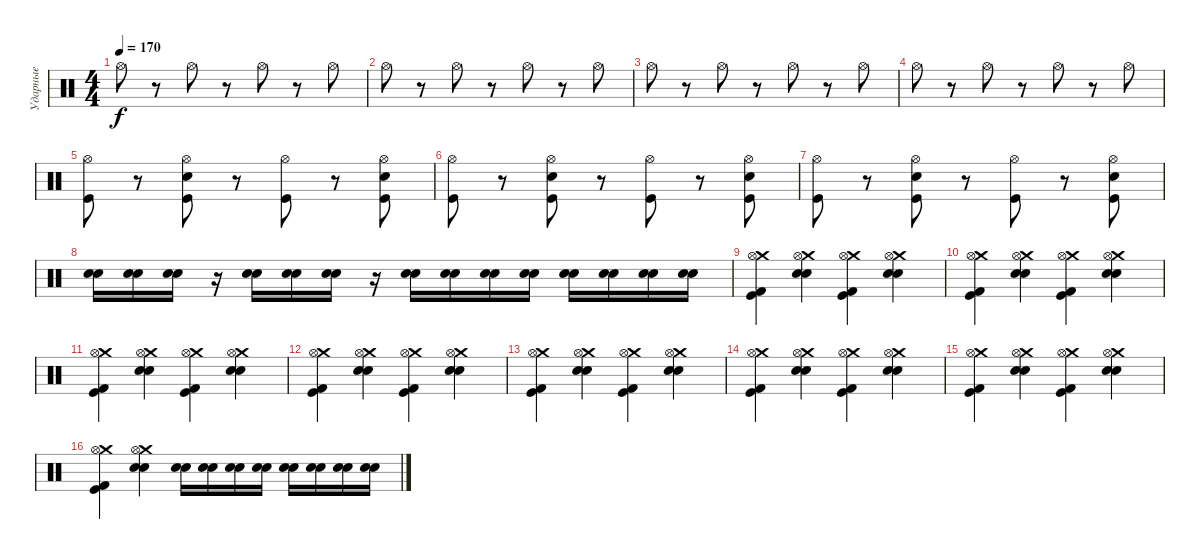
\track ("Ударные" "Ударные") {instrument percussion}
\staff {score}
\articulation defaults
\ts (4 4)
\tempo 170
\clef neutral
\ks c "Hi-Hat (open)".8{dy f}
r.8 "Hi-Hat (open)".8 r.8 "Hi-Hat (open)".8 r.8 "Hi-Hat (open)".8 |
"Hi-Hat (open)".8 r.8 "Hi-Hat (open)".8 r.8 "Hi-Hat (open)".8 r.8 "Hi-Hat (open)".8 |
"Hi-Hat (open)".8 r.8 "Hi-Hat (open)".8 r.8 "Hi-Hat (open)".8 r.8 "Hi-Hat (open)".8 |
"Hi-Hat (open)".8 r.8 "Hi-Hat (open)".8 r.8 "Hi-Hat (open)".8 r.8 "Hi-Hat (open)".8 |
("Hi-Hat (open)" "Kick (hit)").8 r.8 ("Hi-Hat (open)" "Kick (hit)" "Electric Snare (hit)").8 r.8 ("Hi-Hat (open)" "Kick (hit)").8 r.8 ("Hi-Hat (open)" "Kick (hit)" "Electric Snare (hit)").8 |
("Hi-Hat (open)" "Kick (hit)").8 r.8 ("Hi-Hat (open)" "Kick (hit)" "Electric Snare (hit)").8 r.8 ("Hi-Hat (open)" "Kick (hit)").8 r.8 ("Hi-Hat (open)" "Kick (hit)" "Electric Snare (hit)").8 |
("Hi-Hat (open)" "Kick (hit)").8 r.8 ("Hi-Hat (open)" "Kick (hit)" "Electric Snare (hit)").8 r.8 ("Hi-Hat (open)" "Kick (hit)").8 r.8 ("Hi-Hat (open)" "Kick (hit)" "Electric Snare (hit)").8 |
("Snare (hit) 2" "Electric Snare (hit)").16 ("Snare (hit) 2" "Electric Snare (hit)").16 ("Snare (hit) 2" "Electric Snare (hit)").16 r.16 ("Snare (hit) 2" "Electric Snare (hit)").16 ("Snare (hit) 2" "Electric Snare (hit)").16 ("Snare (hit) 2" "Electric Snare (hit)").16 r.16 ("Snare (hit) 2" "Electric Snare (hit)").16 ("Snare (hit) 2" "Electric Snare (hit)").16 ("Snare (hit) 2" "Electric Snare (hit)").16 ("Snare (hit) 2" "Electric Snare (hit)").16 ("Snare (hit) 2" "Electric Snare (hit)").16 ("Snare (hit) 2" "Electric Snare (hit)").16 ("Snare (hit) 2" "Electric Snare (hit)").16 ("Snare (hit) 2" "Electric Snare (hit)").16 |
("Crash medium (hit)" "Hi-Hat (open)" "Kick (hit)" "Kick (hit) 2").4 ("Crash medium (hit)" "Hi-Hat (open)" "Electric Snare (hit)" "Snare (hit) 2").4 ("Crash medium (hit)" "Hi-Hat (open)" "Kick (hit)" "Kick (hit) 2").4 ("Crash medium (hit)" "Hi-Hat (open)" "Electric Snare (hit)" "Snare (hit) 2").4 |
("Crash medium (hit)" "Hi-Hat (open)" "Kick (hit)" "Kick (hit) 2").4 ("Crash medium (hit)" "Hi-Hat (open)" "Electric Snare (hit)" "Snare (hit) 2").4 ("Crash medium (hit)" "Hi-Hat (open)" "Kick (hit)" "Kick (hit) 2").4 ("Crash medium (hit)" "Hi-Hat (open)" "Electric Snare (hit)" "Snare (hit) 2").4 |
("Crash medium (hit)" "Hi-Hat (open)" "Kick (hit)" "Kick (hit) 2").4 ("Crash medium (hit)" "Hi-Hat (open)" "Electric Snare (hit)" "Snare (hit) 2").4 ("Crash medium (hit)" "Hi-Hat (open)" "Kick (hit)" "Kick (hit) 2").4 ("Crash medium (hit)" "Hi-Hat (open)" "Electric Snare (hit)" "Snare (hit) 2").4 |
("Crash medium (hit)" "Hi-Hat (open)" "Kick (hit)" "Kick (hit) 2").4 ("Crash medium (hit)" "Hi-Hat (open)" "Electric Snare (hit)" "Snare (hit) 2").4 ("Crash medium (hit)" "Hi-Hat (open)" "Kick (hit)" "Kick (hit) 2").4 ("Crash medium (hit)" "Hi-Hat (open)" "Electric Snare (hit)" "Snare (hit) 2").4 |
("Crash medium (hit)" "Hi-Hat (open)" "Kick (hit)" "Kick (hit) 2").4 ("Crash medium (hit)" "Hi-Hat (open)" "Electric Snare (hit)" "Snare (hit) 2").4 ("Crash medium (hit)" "Hi-Hat (open)" "Kick (hit)" "Kick (hit) 2").4 ("Crash medium (hit)" "Hi-Hat (open)" "Electric Snare (hit)" "Snare (hit) 2").4 |
("Crash medium (hit)" "Hi-Hat (open)" "Kick (hit)" "Kick (hit) 2").4 ("Crash medium (hit)" "Hi-Hat (open)" "Electric Snare (hit)" "Snare (hit) 2").4 ("Crash medium (hit)" "Hi-Hat (open)" "Kick (hit)" "Kick (hit) 2").4 ("Crash medium (hit)" "Hi-Hat (open)" "Electric Snare (hit)" "Snare (hit) 2").4 |
("Crash medium (hit)" "Hi-Hat (open)" "Kick (hit)" "Kick (hit) 2").4 ("Crash medium (hit)" "Hi-Hat (open)" "Electric Snare (hit)" "Snare (hit) 2").4 ("Crash medium (hit)" "Hi-Hat (open)" "Kick (hit)" "Kick (hit) 2").4 ("Crash medium (hit)" "Hi-Hat (open)" "Electric Snare (hit)" "Snare (hit) 2").4 |
("Crash medium (hit)" "Hi-Hat (open)" "Kick (hit)" "Kick (hit) 2").4 ("Crash medium (hit)" "Hi-Hat (open)" "Electric Snare (hit)" "Snare (hit) 2").4 ("Snare (hit) 2" "Electric Snare (hit)").16 ("Snare (hit) 2" "Electric Snare (hit)").16 ("Snare (hit) 2" "Electric Snare (hit)").16 ("Snare (hit) 2" "Electric Snare (hit)").16 ("Snare (hit) 2" "Electric Snare (hit)").16 ("Snare (hit) 2" "Electric Snare (hit)").16 ("Snare (hit) 2" "Electric Snare (hit)").16 ("Snare (hit) 2" "Electric Snare (hit)").16
